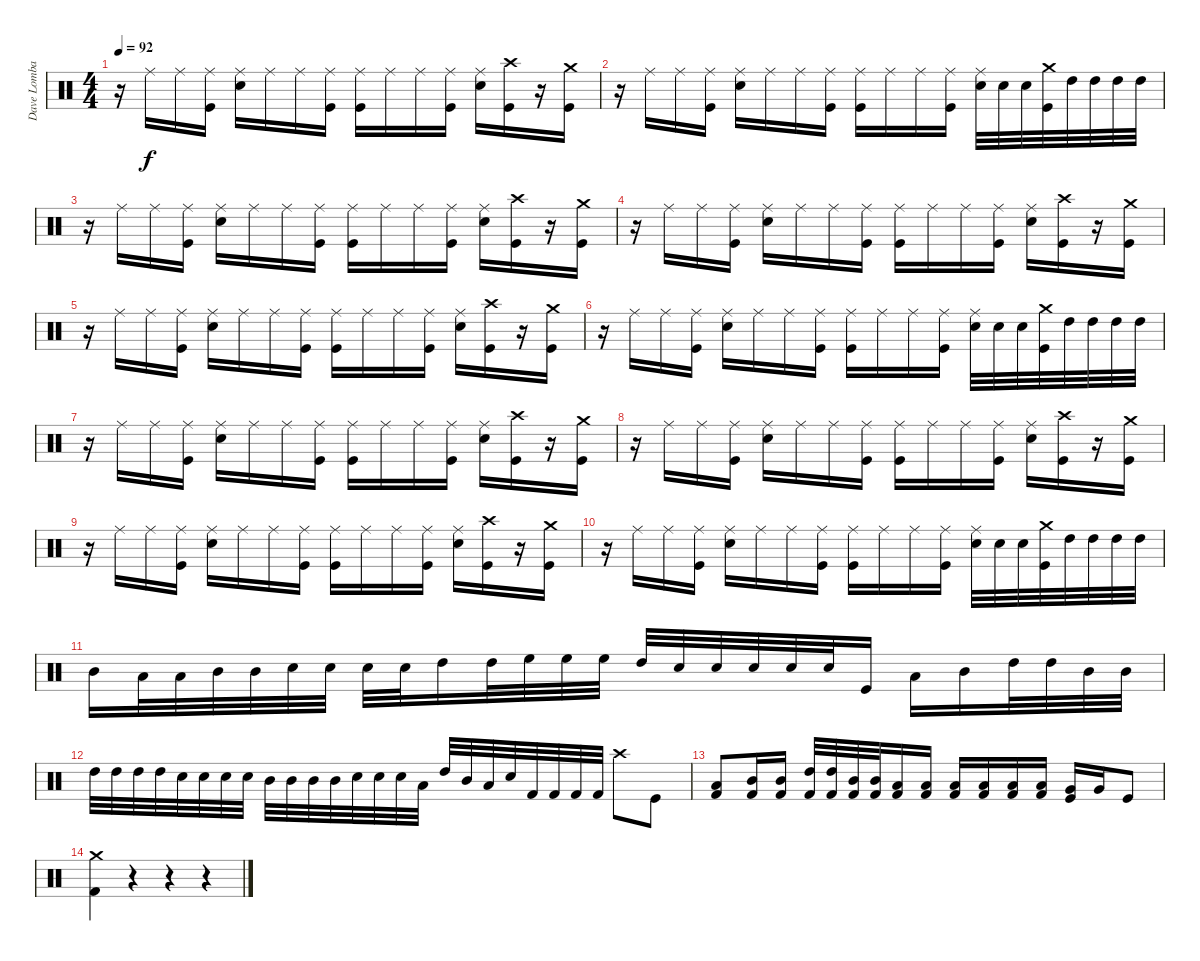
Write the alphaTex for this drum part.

\track ("Dave Lombardo" "Dave Lomba") {instrument percussion}
\staff {score}
\articulation defaults
\ts (4 4)
\tempo 92
\clef neutral
\ks c
r.16{dy f} "Ride (middle)".16 "Ride (middle)".16 ("Ride (middle)" "Kick (hit)").16 ("Ride (middle)" "Snare (hit) 2").16 "Ride (middle)".16 "Ride (middle)".16 ("Ride (middle)" "Kick (hit)").16 ("Ride (middle)" "Kick (hit)").16 "Ride (middle)".16 "Ride (middle)".16 ("Ride (middle)" "Kick (hit)").16 ("Ride (middle)" "Snare (hit) 2").16 ("Crash high (hit)" "Kick (hit)").16 r.16 ("Kick (hit)" "Crash medium (hit)").16 |
r.16 "Ride (middle)".16 "Ride (middle)".16 ("Ride (middle)" "Kick (hit)").16 ("Ride (middle)" "Snare (hit) 2").16 "Ride (middle)".16 "Ride (middle)".16 ("Ride (middle)" "Kick (hit)").16 ("Ride (middle)" "Kick (hit)").16 "Ride (middle)".16 "Ride (middle)".16 ("Ride (middle)" "Kick (hit)").16 ("Ride (middle)" "Snare (hit) 2").32 "Snare (hit) 2".32 "Snare (hit) 2".32 ("Crash medium (hit)" "Kick (hit)").32 "High Tom (hit)".32 "High Tom (hit)".32 "High Tom (hit)".32 "High Tom (hit)".32 |
r.16 "Ride (middle)".16 "Ride (middle)".16 ("Ride (middle)" "Kick (hit)").16 ("Ride (middle)" "Snare (hit) 2").16 "Ride (middle)".16 "Ride (middle)".16 ("Ride (middle)" "Kick (hit)").16 ("Ride (middle)" "Kick (hit)").16 "Ride (middle)".16 "Ride (middle)".16 ("Ride (middle)" "Kick (hit)").16 ("Ride (middle)" "Snare (hit) 2").16 ("Crash high (hit)" "Kick (hit)").16 r.16 ("Kick (hit)" "Crash medium (hit)").16 |
r.16 "Ride (middle)".16 "Ride (middle)".16 ("Ride (middle)" "Kick (hit)").16 ("Ride (middle)" "Snare (hit) 2").16 "Ride (middle)".16 "Ride (middle)".16 ("Ride (middle)" "Kick (hit)").16 ("Ride (middle)" "Kick (hit)").16 "Ride (middle)".16 "Ride (middle)".16 ("Ride (middle)" "Kick (hit)").16 ("Ride (middle)" "Snare (hit) 2").16 ("Crash high (hit)" "Kick (hit)").16 r.16 ("Kick (hit)" "Crash medium (hit)").16 |
r.16 "Ride (middle)".16 "Ride (middle)".16 ("Ride (middle)" "Kick (hit)").16 ("Ride (middle)" "Snare (hit) 2").16 "Ride (middle)".16 "Ride (middle)".16 ("Ride (middle)" "Kick (hit)").16 ("Ride (middle)" "Kick (hit)").16 "Ride (middle)".16 "Ride (middle)".16 ("Ride (middle)" "Kick (hit)").16 ("Ride (middle)" "Snare (hit) 2").16 ("Crash high (hit)" "Kick (hit)").16 r.16 ("Kick (hit)" "Crash medium (hit)").16 |
r.16 "Ride (middle)".16 "Ride (middle)".16 ("Ride (middle)" "Kick (hit)").16 ("Ride (middle)" "Snare (hit) 2").16 "Ride (middle)".16 "Ride (middle)".16 ("Ride (middle)" "Kick (hit)").16 ("Ride (middle)" "Kick (hit)").16 "Ride (middle)".16 "Ride (middle)".16 ("Ride (middle)" "Kick (hit)").16 ("Ride (middle)" "Snare (hit) 2").32 "Snare (hit) 2".32 "Snare (hit) 2".32 ("Crash medium (hit)" "Kick (hit)").32 "High Tom (hit)".32 "High Tom (hit)".32 "High Tom (hit)".32 "High Tom (hit)".32 |
r.16 "Ride (middle)".16 "Ride (middle)".16 ("Ride (middle)" "Kick (hit)").16 ("Ride (middle)" "Snare (hit) 2").16 "Ride (middle)".16 "Ride (middle)".16 ("Ride (middle)" "Kick (hit)").16 ("Ride (middle)" "Kick (hit)").16 "Ride (middle)".16 "Ride (middle)".16 ("Ride (middle)" "Kick (hit)").16 ("Ride (middle)" "Snare (hit) 2").16 ("Crash high (hit)" "Kick (hit)").16 r.16 ("Kick (hit)" "Crash medium (hit)").16 |
r.16 "Ride (middle)".16 "Ride (middle)".16 ("Ride (middle)" "Kick (hit)").16 ("Ride (middle)" "Snare (hit) 2").16 "Ride (middle)".16 "Ride (middle)".16 ("Ride (middle)" "Kick (hit)").16 ("Ride (middle)" "Kick (hit)").16 "Ride (middle)".16 "Ride (middle)".16 ("Ride (middle)" "Kick (hit)").16 ("Ride (middle)" "Snare (hit) 2").16 ("Crash high (hit)" "Kick (hit)").16 r.16 ("Kick (hit)" "Crash medium (hit)").16 |
r.16 "Ride (middle)".16 "Ride (middle)".16 ("Ride (middle)" "Kick (hit)").16 ("Ride (middle)" "Snare (hit) 2").16 "Ride (middle)".16 "Ride (middle)".16 ("Ride (middle)" "Kick (hit)").16 ("Ride (middle)" "Kick (hit)").16 "Ride (middle)".16 "Ride (middle)".16 ("Ride (middle)" "Kick (hit)").16 ("Ride (middle)" "Snare (hit) 2").16 ("Crash high (hit)" "Kick (hit)").16 r.16 ("Kick (hit)" "Crash medium (hit)").16 |
r.16 "Ride (middle)".16 "Ride (middle)".16 ("Ride (middle)" "Kick (hit)").16 ("Ride (middle)" "Snare (hit) 2").16 "Ride (middle)".16 "Ride (middle)".16 ("Ride (middle)" "Kick (hit)").16 ("Ride (middle)" "Kick (hit)").16 "Ride (middle)".16 "Ride (middle)".16 ("Ride (middle)" "Kick (hit)").16 ("Ride (middle)" "Snare (hit) 2").32 "Snare (hit) 2".32 "Snare (hit) 2".32 ("Crash medium (hit)" "Kick (hit)").32 "High Tom (hit)".32 "High Tom (hit)".32 "High Tom (hit)".32 "High Tom (hit)".32 |
"Mid Tom (hit)".16 "Low Tom (hit)".32 "Low Tom (hit)".32 "Mid Tom (hit)".32 "Mid Tom (hit)".32 "Snare (hit) 2".32 "Snare (hit) 2".32 "Snare (hit) 2".32 "Snare (hit) 2".32 "High Tom (hit)".16 "High Tom (hit)".32 "High Floor Tom (hit)".32 "High Floor Tom (hit)".32 "High Floor Tom (hit)".32 "High Tom (hit)".32 "Snare (hit) 2".32 "Snare (hit) 2".32 "Snare (hit) 2".32 "Snare (hit) 2".32 "Snare (hit) 2".32 "Kick (hit)".16 "Low Tom (hit)".16 "Mid Tom (hit)".16 "High Tom (hit)".32 "High Tom (hit)".32 "Mid Tom (hit)".32 "Mid Tom (hit)".32 |
"High Tom (hit)".32 "High Tom (hit)".32 "High Tom (hit)".32 "High Tom (hit)".32 "Snare (hit) 2".32 "Snare (hit) 2".32 "Snare (hit) 2".32 "Snare (hit) 2".32 "Mid Tom (hit)".32 "Mid Tom (hit)".32 "Mid Tom (hit)".32 "Mid Tom (hit)".32 "Snare (hit) 2".32 "Snare (hit) 2".32 "Snare (hit) 2".32 "Low Tom (hit)".32 "High Tom (hit)".32 "Mid Tom (hit)".32 "Low Tom (hit)".32 "Snare (hit) 2".32 "Kick (hit) 2".32 "Kick (hit) 2".32 "Kick (hit) 2".32 "Kick (hit) 2".32 "Crash high (hit)".8 "Kick (hit)".8 |
("Low Tom (hit)" "Kick (hit) 2").8 ("Mid Tom (hit)" "Kick (hit) 2").16 ("Mid Tom (hit)" "Kick (hit) 2").16 ("High Tom (hit)" "Kick (hit) 2").32 ("High Tom (hit)" "Kick (hit) 2").32 ("Mid Tom (hit)" "Kick (hit) 2").32 ("Mid Tom (hit)" "Kick (hit) 2").32 ("Low Tom (hit)" "Kick (hit) 2").16 ("Low Tom (hit)" "Kick (hit) 2").16 ("Low Tom (hit)" "Kick (hit) 2").16 ("Low Tom (hit)" "Kick (hit) 2").16 ("Low Tom (hit)" "Kick (hit) 2").16 ("Low Tom (hit)" "Kick (hit) 2").16 ("Very Low Tom (hit)" "Kick (hit)").16 "Very Low Tom (hit)".16 "Kick (hit)".8 |
("Crash medium (hit)" "Kick (hit) 2").4 r.4 r.4 r.4
